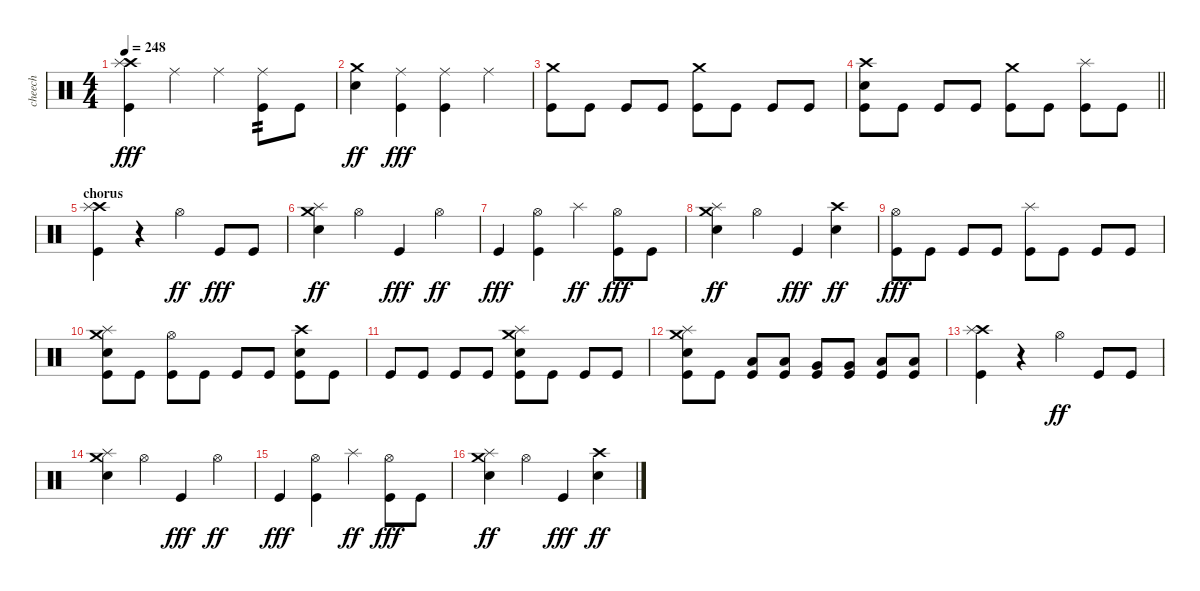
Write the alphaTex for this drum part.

\track ("cheech" "cheech") {instrument percussion}
\staff {score}
\articulation defaults
\ts (4 4)
\tempo 248
\clef neutral
\ks c
("Crash high (hit)" "Splash (hit)" "Kick (hit)").4{dy fff} "Ride (middle)".4 "Ride (middle)".4 ("Ride (middle)" "Kick (hit)").8{tp 2} "Kick (hit)".8 |
("Crash medium (hit)" "Electric Snare (hit)").4{dy ff} ("Ride (middle)" "Kick (hit)").4{dy fff} ("Ride (middle)" "Kick (hit)").4 "Ride (middle)".4 |
("Crash medium (hit)" "Kick (hit)").8 "Kick (hit)".8 "Kick (hit)".8 "Kick (hit)".8 ("Crash medium (hit)" "Kick (hit)").8 "Kick (hit)".8 "Kick (hit)".8 "Kick (hit)".8 |
\barLineRight lightlight
("Crash high (hit)" "Electric Snare (hit)" "Kick (hit)").8 "Kick (hit)".8 "Kick (hit)".8 "Kick (hit)".8 ("Crash medium (hit)" "Kick (hit)").8 "Kick (hit)".8 ("Splash (hit)" "Kick (hit)").8 "Kick (hit)".8 |
\section ("" "chorus")
("Crash high (hit)" "Splash (hit)" "Kick (hit)").4 r.4 "Hi-Hat (open)".4{dy ff} "Kick (hit)".8{dy fff} "Kick (hit)".8 |
("Crash medium (hit)" "Splash (hit)" "Electric Snare (hit)").4{dy ff} "Hi-Hat (open)".4 "Kick (hit)".4{dy fff} "Hi-Hat (open)".4{dy ff} |
"Kick (hit)".4{dy fff} ("Hi-Hat (open)" "Kick (hit)").4 "Splash (hit)".4{dy ff} ("Hi-Hat (open)" "Kick (hit)").8{dy fff} "Kick (hit)".8 |
("Crash medium (hit)" "Splash (hit)" "Electric Snare (hit)").4{dy ff} "Hi-Hat (open)".4 "Kick (hit)".4{dy fff} ("Crash high (hit)" "Electric Snare (hit)").4{dy ff} |
("Hi-Hat (open)" "Kick (hit)").8{dy fff} "Kick (hit)".8 "Kick (hit)".8 "Kick (hit)".8 ("Splash (hit)" "Kick (hit)").8 "Kick (hit)".8 "Kick (hit)".8 "Kick (hit)".8 |
("Crash medium (hit)" "Splash (hit)" "Electric Snare (hit)" "Kick (hit)").8 "Kick (hit)".8 ("Hi-Hat (open)" "Kick (hit)").8 "Kick (hit)".8 "Kick (hit)".8 "Kick (hit)".8 ("Crash high (hit)" "Electric Snare (hit)" "Kick (hit)").8 "Kick (hit)".8 |
"Kick (hit)".8 "Kick (hit)".8 "Kick (hit)".8 "Kick (hit)".8 ("Crash medium (hit)" "Splash (hit)" "Electric Snare (hit)" "Kick (hit)").8 "Kick (hit)".8 "Kick (hit)".8 "Kick (hit)".8 |
("Crash medium (hit)" "Splash (hit)" "Electric Snare (hit)" "Kick (hit)").8 "Kick (hit)".8 ("Low Tom (hit)" "Kick (hit)").8 ("Low Tom (hit)" "Kick (hit)").8 ("Very Low Tom (hit)" "Kick (hit)").8 ("Very Low Tom (hit)" "Kick (hit)").8 ("Low Floor Tom (hit)" "Kick (hit)").8 ("Low Floor Tom (hit)" "Kick (hit)").8 |
("Crash high (hit)" "Splash (hit)" "Kick (hit)").4 r.4 "Hi-Hat (open)".4{dy ff} "Kick (hit)".8 "Kick (hit)".8 |
("Crash medium (hit)" "Splash (hit)" "Electric Snare (hit)").4 "Hi-Hat (open)".4 "Kick (hit)".4{dy fff} "Hi-Hat (open)".4{dy ff} |
"Kick (hit)".4{dy fff} ("Hi-Hat (open)" "Kick (hit)").4 "Splash (hit)".4{dy ff} ("Hi-Hat (open)" "Kick (hit)").8{dy fff} "Kick (hit)".8 |
("Crash medium (hit)" "Splash (hit)" "Electric Snare (hit)").4{dy ff} "Hi-Hat (open)".4 "Kick (hit)".4{dy fff} ("Crash high (hit)" "Electric Snare (hit)").4{dy ff}
